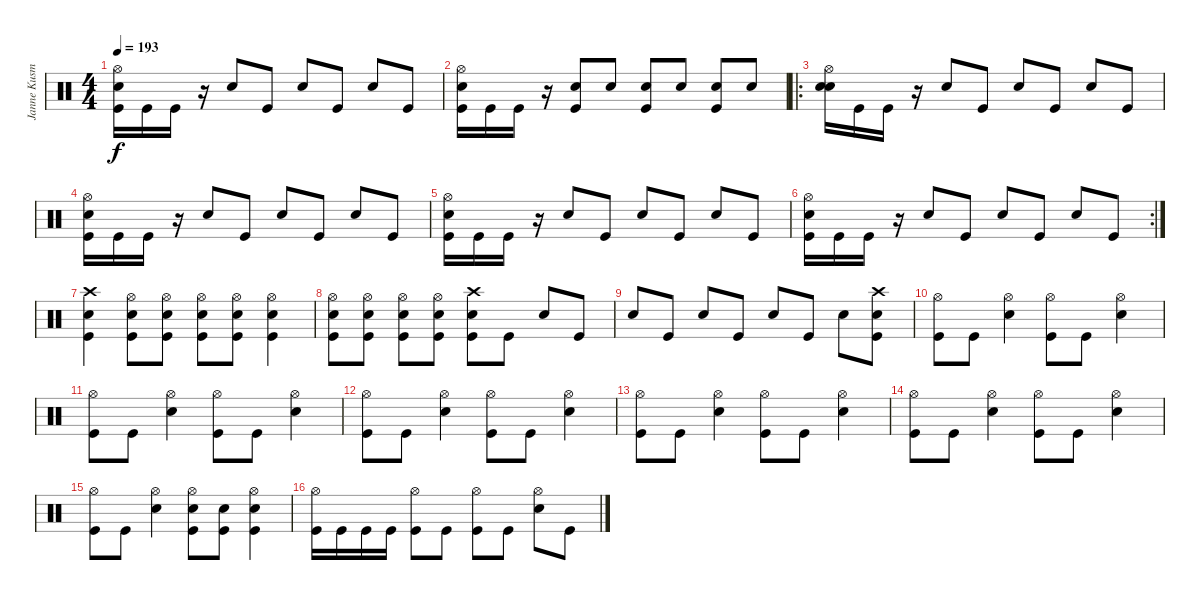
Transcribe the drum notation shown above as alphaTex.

\track ("Janne Kusmin " "Janne Kusm") {instrument percussion}
\staff {score}
\articulation defaults
\ts (4 4)
\tempo 193
\clef neutral
\ks c
("Hi-Hat (open)" "Snare (hit) 2" "Kick (hit)").16{dy f} "Kick (hit)".16 "Kick (hit)".16 r.16 "Snare (hit) 2".8 "Kick (hit)".8 "Snare (hit) 2".8 "Kick (hit)".8 "Snare (hit) 2".8 "Kick (hit)".8 |
("Hi-Hat (open)" "Snare (hit) 2" "Kick (hit)").16 "Kick (hit)".16 "Kick (hit)".16 r.16 ("Snare (hit) 2" "Kick (hit)").8 "Snare (hit) 2".8 ("Snare (hit) 2" "Kick (hit)").8 "Snare (hit) 2".8 ("Snare (hit) 2" "Kick (hit)").8 "Snare (hit) 2".8 |
\ro
("Hi-Hat (open)" "Snare (hit) 2" "Snare (hit)").16 "Kick (hit)".16 "Kick (hit)".16 r.16 "Snare (hit) 2".8 "Kick (hit)".8 "Snare (hit) 2".8 "Kick (hit)".8 "Snare (hit) 2".8 "Kick (hit)".8 |
("Hi-Hat (open)" "Snare (hit) 2" "Kick (hit)").16 "Kick (hit)".16 "Kick (hit)".16 r.16 "Snare (hit) 2".8 "Kick (hit)".8 "Snare (hit) 2".8 "Kick (hit)".8 "Snare (hit) 2".8 "Kick (hit)".8 |
("Hi-Hat (open)" "Snare (hit) 2" "Kick (hit)").16 "Kick (hit)".16 "Kick (hit)".16 r.16 "Snare (hit) 2".8 "Kick (hit)".8 "Snare (hit) 2".8 "Kick (hit)".8 "Snare (hit) 2".8 "Kick (hit)".8 |
\rc 2
("Hi-Hat (open)" "Snare (hit) 2" "Kick (hit)").16 "Kick (hit)".16 "Kick (hit)".16 r.16 "Snare (hit) 2".8 "Kick (hit)".8 "Snare (hit) 2".8 "Kick (hit)".8 "Snare (hit) 2".8 "Kick (hit)".8 |
("Crash high (hit)" "Snare (hit) 2" "Kick (hit)").4 ("Hi-Hat (open)" "Snare (hit) 2" "Kick (hit)").8 ("Hi-Hat (open)" "Snare (hit) 2" "Kick (hit)").8 ("Hi-Hat (open)" "Snare (hit) 2" "Kick (hit)").8 ("Hi-Hat (open)" "Snare (hit) 2" "Kick (hit)").8 ("Hi-Hat (open)" "Snare (hit) 2" "Kick (hit)").4 |
("Hi-Hat (open)" "Snare (hit) 2" "Kick (hit)").8 ("Hi-Hat (open)" "Snare (hit) 2" "Kick (hit)").8 ("Hi-Hat (open)" "Snare (hit) 2" "Kick (hit)").8 ("Hi-Hat (open)" "Snare (hit) 2" "Kick (hit)").8 ("Crash high (hit)" "Snare (hit) 2" "Kick (hit)").8 "Kick (hit)".8 "Snare (hit) 2".8 "Kick (hit)".8 |
"Snare (hit) 2".8 "Kick (hit)".8 "Snare (hit) 2".8 "Kick (hit)".8 "Snare (hit) 2".8 "Kick (hit)".8 "Snare (hit) 2".8 ("Crash high (hit)" "Snare (hit) 2" "Kick (hit)").8 |
("Hi-Hat (open)" "Kick (hit)").8 "Kick (hit)".8 ("Hi-Hat (open)" "Snare (hit) 2").4 ("Hi-Hat (open)" "Kick (hit)").8 "Kick (hit)".8 ("Hi-Hat (open)" "Snare (hit) 2").4 |
("Hi-Hat (open)" "Kick (hit)").8 "Kick (hit)".8 ("Hi-Hat (open)" "Snare (hit) 2").4 ("Hi-Hat (open)" "Kick (hit)").8 "Kick (hit)".8 ("Hi-Hat (open)" "Snare (hit) 2").4 |
("Hi-Hat (open)" "Kick (hit)").8 "Kick (hit)".8 ("Hi-Hat (open)" "Snare (hit) 2").4 ("Hi-Hat (open)" "Kick (hit)").8 "Kick (hit)".8 ("Hi-Hat (open)" "Snare (hit) 2").4 |
("Hi-Hat (open)" "Kick (hit)").8 "Kick (hit)".8 ("Hi-Hat (open)" "Snare (hit) 2").4 ("Hi-Hat (open)" "Kick (hit)").8 "Kick (hit)".8 ("Hi-Hat (open)" "Snare (hit) 2").4 |
("Hi-Hat (open)" "Kick (hit)").8 "Kick (hit)".8 ("Hi-Hat (open)" "Snare (hit) 2").4 ("Hi-Hat (open)" "Kick (hit)").8 "Kick (hit)".8 ("Hi-Hat (open)" "Snare (hit) 2").4 |
("Hi-Hat (open)" "Kick (hit)").8 "Kick (hit)".8 ("Hi-Hat (open)" "Snare (hit) 2").4 ("Hi-Hat (open)" "Snare (hit) 2" "Kick (hit)").8 ("Snare (hit) 2" "Kick (hit)").8 ("Hi-Hat (open)" "Snare (hit) 2" "Kick (hit)").4 |
("Hi-Hat (open)" "Kick (hit)").16 "Kick (hit)".16 "Kick (hit)".16 "Kick (hit)".16 ("Hi-Hat (open)" "Kick (hit)").8 "Kick (hit)".8 ("Hi-Hat (open)" "Kick (hit)").8 "Kick (hit)".8 ("Hi-Hat (open)" "Snare (hit) 2").8 "Kick (hit)".8
